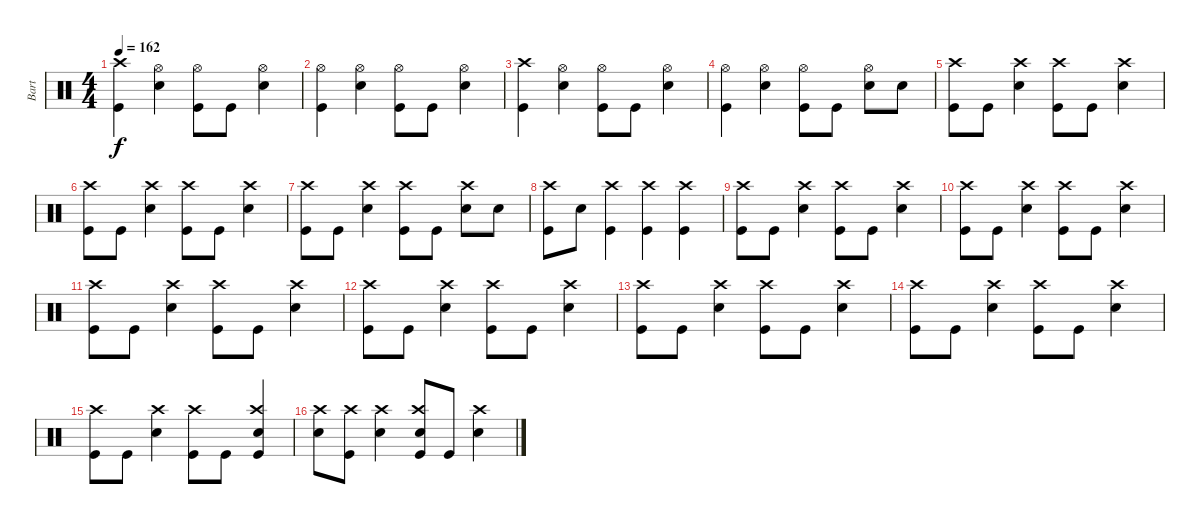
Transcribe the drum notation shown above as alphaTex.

\track ("Bart" "Bart") {instrument percussion}
\staff {score}
\articulation defaults
\ts (4 4)
\tempo 162
\clef neutral
\ks c
("Kick (hit)" "Crash high (hit)").4{dy f} ("Electric Snare (hit)" "Hi-Hat (open)").4 ("Kick (hit)" "Hi-Hat (open)").8 "Kick (hit)".8 ("Electric Snare (hit)" "Hi-Hat (open)").4 |
("Kick (hit)" "Hi-Hat (open)").4 ("Electric Snare (hit)" "Hi-Hat (open)").4 ("Kick (hit)" "Hi-Hat (open)").8 "Kick (hit)".8 ("Electric Snare (hit)" "Hi-Hat (open)").4 |
("Kick (hit)" "Crash high (hit)").4 ("Electric Snare (hit)" "Hi-Hat (open)").4 ("Kick (hit)" "Hi-Hat (open)").8 "Kick (hit)".8 ("Electric Snare (hit)" "Hi-Hat (open)").4 |
("Kick (hit)" "Hi-Hat (open)").4 ("Electric Snare (hit)" "Hi-Hat (open)").4 ("Kick (hit)" "Hi-Hat (open)").8 "Kick (hit)".8 ("Electric Snare (hit)" "Hi-Hat (open)").8 "Electric Snare (hit)".8 |
("Kick (hit)" "Crash high (hit)").8 "Kick (hit)".8 ("Electric Snare (hit)" "Crash high (hit)").4 ("Kick (hit)" "Crash high (hit)").8 "Kick (hit)".8 ("Electric Snare (hit)" "Crash high (hit)").4 |
("Kick (hit)" "Crash high (hit)").8 "Kick (hit)".8 ("Electric Snare (hit)" "Crash high (hit)").4 ("Kick (hit)" "Crash high (hit)").8 "Kick (hit)".8 ("Electric Snare (hit)" "Crash high (hit)").4 |
("Kick (hit)" "Crash high (hit)").8 "Kick (hit)".8 ("Electric Snare (hit)" "Crash high (hit)").4 ("Kick (hit)" "Crash high (hit)").8 "Kick (hit)".8 ("Electric Snare (hit)" "Crash high (hit)").8 "Electric Snare (hit)".8 |
("Kick (hit)" "Crash high (hit)").8 "Electric Snare (hit)".8 ("Kick (hit)" "Crash high (hit)").4 ("Kick (hit)" "Crash high (hit)").4 ("Kick (hit)" "Crash high (hit)").4 |
("Kick (hit)" "Crash high (hit)").8 "Kick (hit)".8 ("Electric Snare (hit)" "Crash high (hit)").4 ("Kick (hit)" "Crash high (hit)").8 "Kick (hit)".8 ("Electric Snare (hit)" "Crash high (hit)").4 |
("Kick (hit)" "Crash high (hit)").8 "Kick (hit)".8 ("Electric Snare (hit)" "Crash high (hit)").4 ("Kick (hit)" "Crash high (hit)").8 "Kick (hit)".8 ("Electric Snare (hit)" "Crash high (hit)").4 |
("Kick (hit)" "Crash high (hit)").8 "Kick (hit)".8 ("Electric Snare (hit)" "Crash high (hit)").4 ("Kick (hit)" "Crash high (hit)").8 "Kick (hit)".8 ("Electric Snare (hit)" "Crash high (hit)").4 |
("Kick (hit)" "Crash high (hit)").8 "Kick (hit)".8 ("Electric Snare (hit)" "Crash high (hit)").4 ("Kick (hit)" "Crash high (hit)").8 "Kick (hit)".8 ("Electric Snare (hit)" "Crash high (hit)").4 |
("Kick (hit)" "Crash high (hit)").8 "Kick (hit)".8 ("Electric Snare (hit)" "Crash high (hit)").4 ("Kick (hit)" "Crash high (hit)").8 "Kick (hit)".8 ("Electric Snare (hit)" "Crash high (hit)").4 |
("Kick (hit)" "Crash high (hit)").8 "Kick (hit)".8 ("Electric Snare (hit)" "Crash high (hit)").4 ("Kick (hit)" "Crash high (hit)").8 "Kick (hit)".8 ("Electric Snare (hit)" "Crash high (hit)").4 |
("Kick (hit)" "Crash high (hit)").8 "Kick (hit)".8 ("Electric Snare (hit)" "Crash high (hit)").4 ("Kick (hit)" "Crash high (hit)").8 "Kick (hit)".8 ("Kick (hit)" "Electric Snare (hit)" "Crash high (hit)").4 |
("Electric Snare (hit)" "Crash high (hit)").8 ("Kick (hit)" "Crash high (hit)").8 ("Electric Snare (hit)" "Crash high (hit)").4 ("Kick (hit)" "Electric Snare (hit)" "Crash high (hit)").8 "Kick (hit)".8 ("Electric Snare (hit)" "Crash high (hit)").4
